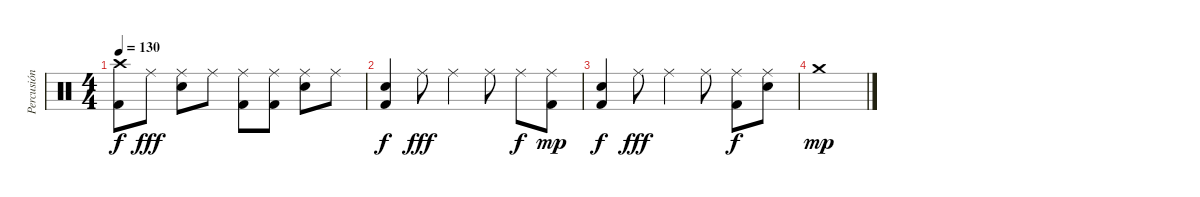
\track ("Percusión" "Percusión") {instrument percussion}
\staff {score}
\articulation defaults
\ts (4 4)
\tempo 130
\clef neutral
\ks c
("Kick (hit) 2" "Crash high (hit)").8{dy f} "Ride (middle)".8{dy fff} ("Ride (middle)" "Electric Snare (hit)").8 "Ride (middle)".8 ("Ride (middle)" "Kick (hit) 2").8 ("Ride (middle)" "Kick (hit) 2").8 ("Ride (middle)" "Electric Snare (hit)").8 "Ride (middle)".8 |
("Electric Snare (hit)" "Kick (hit) 2").4{dy f} "Ride (middle)".8{dy fff} "Ride (middle)".4 "Ride (middle)".8 "Ride (middle)".8{dy f} ("Ride (middle)" "Kick (hit) 2").8{dy mp} |
("Electric Snare (hit)" "Kick (hit) 2").4{dy f} "Ride (middle)".8{dy fff} "Ride (middle)".4 "Ride (middle)".8 ("Ride (middle)" "Kick (hit) 2").8{dy f} ("Ride (middle)" "Electric Snare (hit)").8 |
"Crash medium (hit)".1{dy mp}
